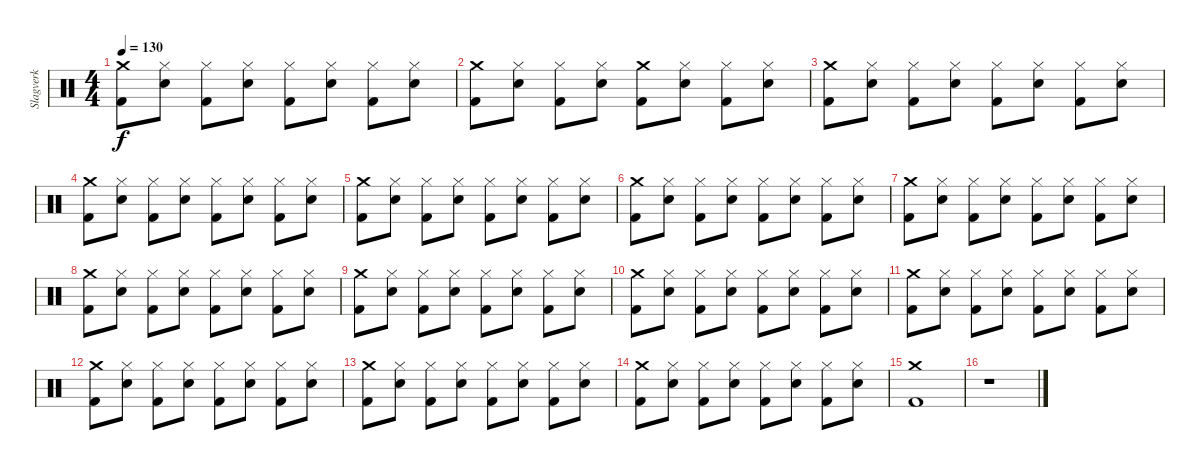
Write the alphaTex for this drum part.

\track ("Slagverk" "Slagverk") {instrument percussion}
\staff {score}
\articulation defaults
\ts (4 4)
\tempo 130
\clef neutral
\ks c
("Crash medium (hit)" "Kick (hit) 2").8{dy f} ("Snare (hit) 2" "Hi-Hat (closed)").8 ("Hi-Hat (closed)" "Kick (hit) 2").8 ("Snare (hit) 2" "Hi-Hat (closed)").8 ("Hi-Hat (closed)" "Kick (hit) 2").8 ("Snare (hit) 2" "Hi-Hat (closed)").8 ("Hi-Hat (closed)" "Kick (hit) 2").8 ("Snare (hit) 2" "Hi-Hat (closed)").8 |
("Crash medium (hit)" "Kick (hit) 2").8 ("Snare (hit) 2" "Hi-Hat (closed)").8 ("Hi-Hat (closed)" "Kick (hit) 2").8 ("Snare (hit) 2" "Hi-Hat (closed)").8 ("Crash medium (hit)" "Kick (hit) 2").8 ("Snare (hit) 2" "Hi-Hat (closed)").8 ("Hi-Hat (closed)" "Kick (hit) 2").8 ("Snare (hit) 2" "Hi-Hat (closed)").8 |
("Crash medium (hit)" "Kick (hit) 2").8 ("Snare (hit) 2" "Hi-Hat (closed)").8 ("Hi-Hat (closed)" "Kick (hit) 2").8 ("Snare (hit) 2" "Hi-Hat (closed)").8 ("Hi-Hat (closed)" "Kick (hit) 2").8 ("Snare (hit) 2" "Hi-Hat (closed)").8 ("Hi-Hat (closed)" "Kick (hit) 2").8 ("Snare (hit) 2" "Hi-Hat (closed)").8 |
("Crash medium (hit)" "Kick (hit) 2").8 ("Snare (hit) 2" "Hi-Hat (closed)").8 ("Hi-Hat (closed)" "Kick (hit) 2").8 ("Snare (hit) 2" "Hi-Hat (closed)").8 ("Hi-Hat (closed)" "Kick (hit) 2").8 ("Snare (hit) 2" "Hi-Hat (closed)").8 ("Hi-Hat (closed)" "Kick (hit) 2").8 ("Snare (hit) 2" "Hi-Hat (closed)").8 |
("Crash medium (hit)" "Kick (hit) 2").8 ("Snare (hit) 2" "Hi-Hat (closed)").8 ("Hi-Hat (closed)" "Kick (hit) 2").8 ("Snare (hit) 2" "Hi-Hat (closed)").8 ("Hi-Hat (closed)" "Kick (hit) 2").8 ("Snare (hit) 2" "Hi-Hat (closed)").8 ("Hi-Hat (closed)" "Kick (hit) 2").8 ("Snare (hit) 2" "Hi-Hat (closed)").8 |
("Crash medium (hit)" "Kick (hit) 2").8 ("Snare (hit) 2" "Hi-Hat (closed)").8 ("Hi-Hat (closed)" "Kick (hit) 2").8 ("Snare (hit) 2" "Hi-Hat (closed)").8 ("Hi-Hat (closed)" "Kick (hit) 2").8 ("Snare (hit) 2" "Hi-Hat (closed)").8 ("Hi-Hat (closed)" "Kick (hit) 2").8 ("Snare (hit) 2" "Hi-Hat (closed)").8 |
("Crash medium (hit)" "Kick (hit) 2").8 ("Snare (hit) 2" "Hi-Hat (closed)").8 ("Hi-Hat (closed)" "Kick (hit) 2").8 ("Snare (hit) 2" "Hi-Hat (closed)").8 ("Hi-Hat (closed)" "Kick (hit) 2").8 ("Snare (hit) 2" "Hi-Hat (closed)").8 ("Hi-Hat (closed)" "Kick (hit) 2").8 ("Snare (hit) 2" "Hi-Hat (closed)").8 |
("Crash medium (hit)" "Kick (hit) 2").8 ("Snare (hit) 2" "Hi-Hat (closed)").8 ("Hi-Hat (closed)" "Kick (hit) 2").8 ("Snare (hit) 2" "Hi-Hat (closed)").8 ("Hi-Hat (closed)" "Kick (hit) 2").8 ("Snare (hit) 2" "Hi-Hat (closed)").8 ("Hi-Hat (closed)" "Kick (hit) 2").8 ("Snare (hit) 2" "Hi-Hat (closed)").8 |
("Crash medium (hit)" "Kick (hit) 2").8 ("Snare (hit) 2" "Hi-Hat (closed)").8 ("Hi-Hat (closed)" "Kick (hit) 2").8 ("Snare (hit) 2" "Hi-Hat (closed)").8 ("Hi-Hat (closed)" "Kick (hit) 2").8 ("Snare (hit) 2" "Hi-Hat (closed)").8 ("Hi-Hat (closed)" "Kick (hit) 2").8 ("Snare (hit) 2" "Hi-Hat (closed)").8 |
("Crash medium (hit)" "Kick (hit) 2").8 ("Snare (hit) 2" "Hi-Hat (closed)").8 ("Hi-Hat (closed)" "Kick (hit) 2").8 ("Snare (hit) 2" "Hi-Hat (closed)").8 ("Hi-Hat (closed)" "Kick (hit) 2").8 ("Snare (hit) 2" "Hi-Hat (closed)").8 ("Hi-Hat (closed)" "Kick (hit) 2").8 ("Snare (hit) 2" "Hi-Hat (closed)").8 |
("Crash medium (hit)" "Kick (hit) 2").8 ("Snare (hit) 2" "Hi-Hat (closed)").8 ("Hi-Hat (closed)" "Kick (hit) 2").8 ("Snare (hit) 2" "Hi-Hat (closed)").8 ("Hi-Hat (closed)" "Kick (hit) 2").8 ("Snare (hit) 2" "Hi-Hat (closed)").8 ("Hi-Hat (closed)" "Kick (hit) 2").8 ("Snare (hit) 2" "Hi-Hat (closed)").8 |
("Crash medium (hit)" "Kick (hit) 2").8 ("Snare (hit) 2" "Hi-Hat (closed)").8 ("Hi-Hat (closed)" "Kick (hit) 2").8 ("Snare (hit) 2" "Hi-Hat (closed)").8 ("Hi-Hat (closed)" "Kick (hit) 2").8 ("Snare (hit) 2" "Hi-Hat (closed)").8 ("Hi-Hat (closed)" "Kick (hit) 2").8 ("Snare (hit) 2" "Hi-Hat (closed)").8 |
("Crash medium (hit)" "Kick (hit) 2").8 ("Snare (hit) 2" "Hi-Hat (closed)").8 ("Hi-Hat (closed)" "Kick (hit) 2").8 ("Snare (hit) 2" "Hi-Hat (closed)").8 ("Hi-Hat (closed)" "Kick (hit) 2").8 ("Snare (hit) 2" "Hi-Hat (closed)").8 ("Hi-Hat (closed)" "Kick (hit) 2").8 ("Snare (hit) 2" "Hi-Hat (closed)").8 |
("Crash medium (hit)" "Kick (hit) 2").8 ("Snare (hit) 2" "Hi-Hat (closed)").8 ("Hi-Hat (closed)" "Kick (hit) 2").8 ("Snare (hit) 2" "Hi-Hat (closed)").8 ("Hi-Hat (closed)" "Kick (hit) 2").8 ("Snare (hit) 2" "Hi-Hat (closed)").8 ("Hi-Hat (closed)" "Kick (hit) 2").8 ("Snare (hit) 2" "Hi-Hat (closed)").8 |
("Crash medium (hit)" "Kick (hit) 2").1 |
r.1
